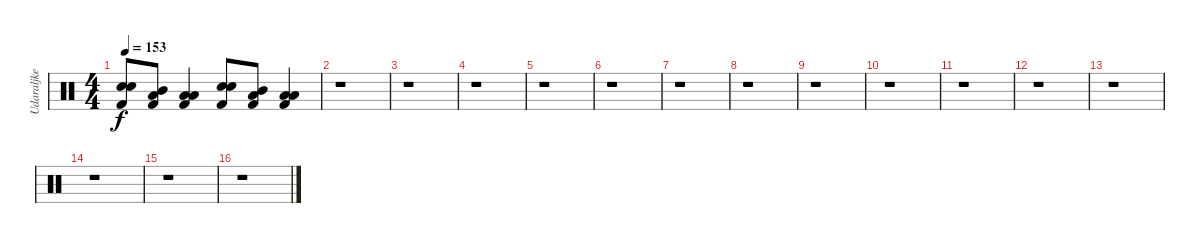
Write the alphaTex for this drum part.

\track ("Udaraljke" "Udaraljke") {instrument percussion}
\staff {score}
\articulation defaults
\ts (4 4)
\tempo 153
\clef neutral
\ks c
("Electric Snare (hit)" "Snare (hit) 2" "Kick (hit) 2").8{dy f} ("Mid Tom (hit)" "Low Tom (hit)" "Kick (hit) 2").8 ("Low Tom (hit)" "Low Tom (hit)" "Kick (hit) 2").4 ("Electric Snare (hit)" "Snare (hit) 2" "Kick (hit) 2").8 ("Mid Tom (hit)" "Low Tom (hit)" "Kick (hit) 2").8 ("Low Tom (hit)" "Low Tom (hit)" "Kick (hit) 2").4 |
r.1 |
r.1 |
r.1 |
r.1 |
r.1 |
r.1 |
r.1 |
r.1 |
r.1 |
r.1 |
r.1 |
r.1 |
r.1 |
r.1 |
r.1
